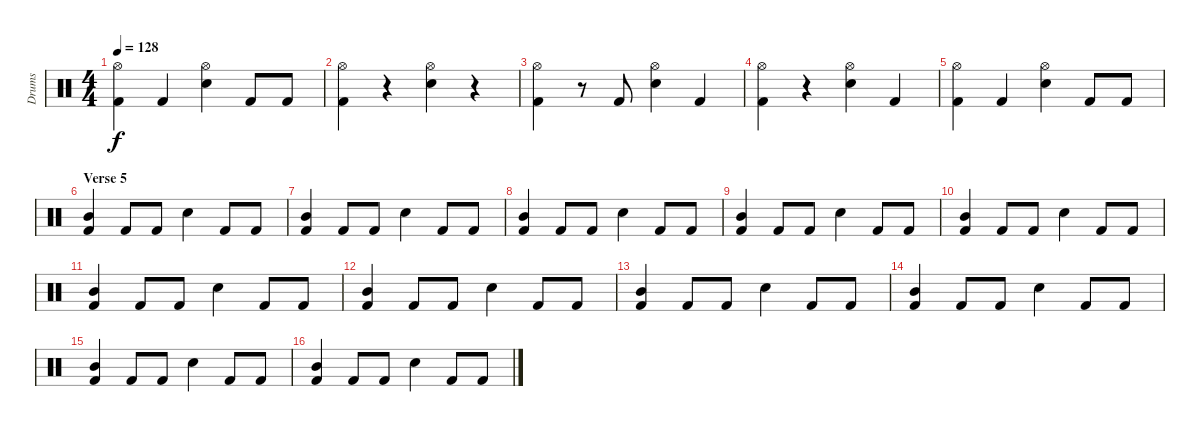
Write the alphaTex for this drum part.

\track ("Drums" "Drums") {instrument percussion}
\staff {score}
\articulation defaults
\ts (4 4)
\tempo 128
\clef neutral
\ks c
("Hi-Hat (open)" "Kick (hit) 2").4{dy f} "Kick (hit) 2".4 ("Hi-Hat (open)" "Snare (hit) 2").4 "Kick (hit) 2".8 "Kick (hit) 2".8 |
("Hi-Hat (open)" "Kick (hit) 2").4 r.4 ("Hi-Hat (open)" "Snare (hit) 2").4 r.4 |
("Hi-Hat (open)" "Kick (hit) 2").4 r.8 "Kick (hit) 2".8 ("Hi-Hat (open)" "Snare (hit) 2").4 "Kick (hit) 2".4 |
("Hi-Hat (open)" "Kick (hit) 2").4 r.4 ("Hi-Hat (open)" "Snare (hit) 2").4 "Kick (hit) 2".4 |
("Hi-Hat (open)" "Kick (hit) 2").4 "Kick (hit) 2".4 ("Hi-Hat (open)" "Snare (hit) 2").4 "Kick (hit) 2".8 "Kick (hit) 2".8 |
\section ("" "Verse 5")
("Mid Tom (hit)" "Kick (hit) 2").4 "Kick (hit) 2".8 "Kick (hit) 2".8 "Snare (hit) 2".4 "Kick (hit) 2".8 "Kick (hit) 2".8 |
("Mid Tom (hit)" "Kick (hit) 2").4 "Kick (hit) 2".8 "Kick (hit) 2".8 "Snare (hit) 2".4 "Kick (hit) 2".8 "Kick (hit) 2".8 |
("Mid Tom (hit)" "Kick (hit) 2").4 "Kick (hit) 2".8 "Kick (hit) 2".8 "Snare (hit) 2".4 "Kick (hit) 2".8 "Kick (hit) 2".8 |
("Mid Tom (hit)" "Kick (hit) 2").4 "Kick (hit) 2".8 "Kick (hit) 2".8 "Snare (hit) 2".4 "Kick (hit) 2".8 "Kick (hit) 2".8 |
("Mid Tom (hit)" "Kick (hit) 2").4 "Kick (hit) 2".8 "Kick (hit) 2".8 "Snare (hit) 2".4 "Kick (hit) 2".8 "Kick (hit) 2".8 |
("Mid Tom (hit)" "Kick (hit) 2").4 "Kick (hit) 2".8 "Kick (hit) 2".8 "Snare (hit) 2".4 "Kick (hit) 2".8 "Kick (hit) 2".8 |
("Mid Tom (hit)" "Kick (hit) 2").4 "Kick (hit) 2".8 "Kick (hit) 2".8 "Snare (hit) 2".4 "Kick (hit) 2".8 "Kick (hit) 2".8 |
("Mid Tom (hit)" "Kick (hit) 2").4 "Kick (hit) 2".8 "Kick (hit) 2".8 "Snare (hit) 2".4 "Kick (hit) 2".8 "Kick (hit) 2".8 |
("Mid Tom (hit)" "Kick (hit) 2").4 "Kick (hit) 2".8 "Kick (hit) 2".8 "Snare (hit) 2".4 "Kick (hit) 2".8 "Kick (hit) 2".8 |
("Mid Tom (hit)" "Kick (hit) 2").4 "Kick (hit) 2".8 "Kick (hit) 2".8 "Snare (hit) 2".4 "Kick (hit) 2".8 "Kick (hit) 2".8 |
("Mid Tom (hit)" "Kick (hit) 2").4 "Kick (hit) 2".8 "Kick (hit) 2".8 "Snare (hit) 2".4 "Kick (hit) 2".8 "Kick (hit) 2".8
